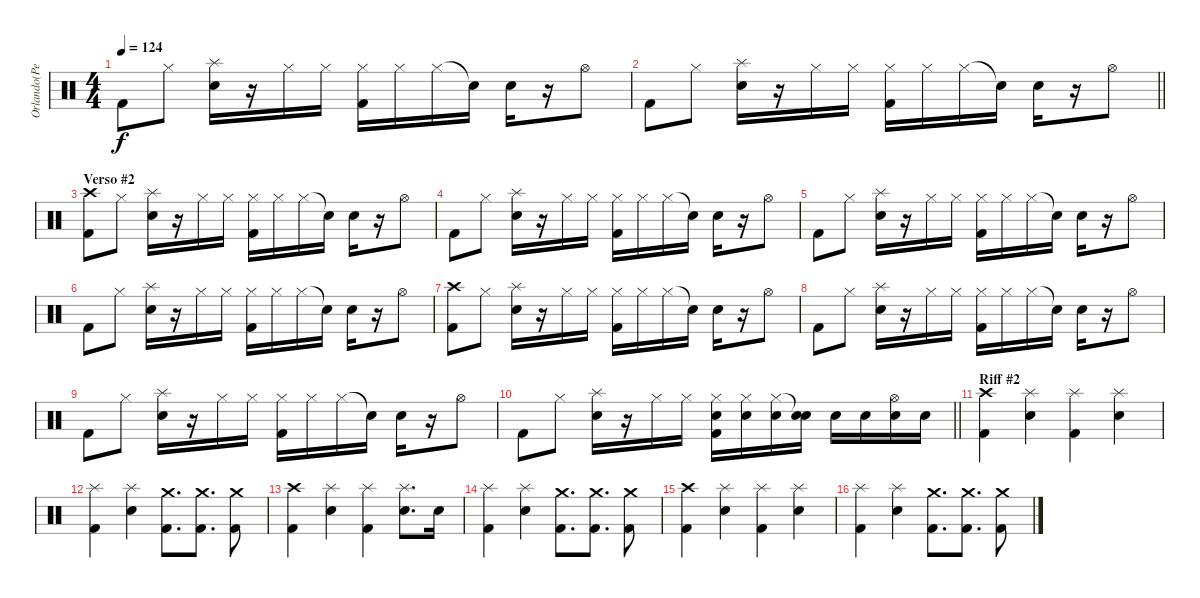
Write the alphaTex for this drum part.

\track ("Orlando(Percusión)" "Orlando(Pe") {instrument percussion}
\staff {score}
\articulation defaults
\ts (4 4)
\tempo 124
\clef neutral
\ks c "Kick (hit) 2".8{dy f} "Hi-Hat (closed)".8
("Splash (hit)" "Electric Snare (hit)").16 r.16 "Hi-Hat (closed)".16 "Hi-Hat (closed)".16 ("Hi-Hat (closed)" "Kick (hit) 2").16 "Hi-Hat (closed)".16 "Hi-Hat (closed)".16 "Snare (hit)"{t}.16 "Electric Snare (hit)".16 r.16 "Hi-Hat (open)".8 |
\barLineRight lightlight "Kick (hit) 2".8 "Hi-Hat (closed)".8
("Splash (hit)" "Electric Snare (hit)").16 r.16 "Hi-Hat (closed)".16 "Hi-Hat (closed)".16 ("Hi-Hat (closed)" "Kick (hit) 2").16 "Hi-Hat (closed)".16 "Hi-Hat (closed)".16 "Snare (hit)"{t}.16 "Electric Snare (hit)".16 r.16 "Hi-Hat (open)".8 |
\section ("" "Verso #2")
("Crash high (hit)" "Kick (hit) 2").8 "Hi-Hat (closed)".8 ("Splash (hit)" "Electric Snare (hit)").16 r.16 "Hi-Hat (closed)".16 "Hi-Hat (closed)".16 ("Hi-Hat (closed)" "Kick (hit) 2").16 "Hi-Hat (closed)".16 "Hi-Hat (closed)".16 "Snare (hit)"{t}.16 "Electric Snare (hit)".16 r.16 "Hi-Hat (open)".8 |
"Kick (hit) 2".8 "Hi-Hat (closed)".8 ("Splash (hit)" "Electric Snare (hit)").16 r.16 "Hi-Hat (closed)".16 "Hi-Hat (closed)".16 ("Hi-Hat (closed)" "Kick (hit) 2").16 "Hi-Hat (closed)".16 "Hi-Hat (closed)".16 "Snare (hit)"{t}.16 "Electric Snare (hit)".16 r.16 "Hi-Hat (open)".8 |
"Kick (hit) 2".8 "Hi-Hat (closed)".8 ("Splash (hit)" "Electric Snare (hit)").16 r.16 "Hi-Hat (closed)".16 "Hi-Hat (closed)".16 ("Hi-Hat (closed)" "Kick (hit) 2").16 "Hi-Hat (closed)".16 "Hi-Hat (closed)".16 "Snare (hit)"{t}.16 "Electric Snare (hit)".16 r.16 "Hi-Hat (open)".8 |
"Kick (hit) 2".8 "Hi-Hat (closed)".8 ("Splash (hit)" "Electric Snare (hit)").16 r.16 "Hi-Hat (closed)".16 "Hi-Hat (closed)".16 ("Hi-Hat (closed)" "Kick (hit) 2").16 "Hi-Hat (closed)".16 "Hi-Hat (closed)".16 "Snare (hit)"{t}.16 "Electric Snare (hit)".16 r.16 "Hi-Hat (open)".8 |
("Crash high (hit)" "Kick (hit) 2").8 "Hi-Hat (closed)".8 ("Splash (hit)" "Electric Snare (hit)").16 r.16 "Hi-Hat (closed)".16 "Hi-Hat (closed)".16 ("Hi-Hat (closed)" "Kick (hit) 2").16 "Hi-Hat (closed)".16 "Hi-Hat (closed)".16 "Snare (hit)"{t}.16 "Electric Snare (hit)".16 r.16 "Hi-Hat (open)".8 |
"Kick (hit) 2".8 "Hi-Hat (closed)".8 ("Splash (hit)" "Electric Snare (hit)").16 r.16 "Hi-Hat (closed)".16 "Hi-Hat (closed)".16 ("Hi-Hat (closed)" "Kick (hit) 2").16 "Hi-Hat (closed)".16 "Hi-Hat (closed)".16 "Snare (hit)"{t}.16 "Electric Snare (hit)".16 r.16 "Hi-Hat (open)".8 |
"Kick (hit) 2".8 "Hi-Hat (closed)".8 ("Splash (hit)" "Electric Snare (hit)").16 r.16 "Hi-Hat (closed)".16 "Hi-Hat (closed)".16 ("Hi-Hat (closed)" "Kick (hit) 2").16 "Hi-Hat (closed)".16 "Hi-Hat (closed)".16 "Snare (hit)"{t}.16 "Electric Snare (hit)".16 r.16 "Hi-Hat (open)".8 |
\barLineRight lightlight "Kick (hit) 2".8 "Hi-Hat (closed)".8
("Splash (hit)" "Electric Snare (hit)").16 r.16 "Hi-Hat (closed)".16 "Hi-Hat (closed)".16 ("Hi-Hat (closed)" "Electric Snare (hit)" "Kick (hit) 2").16 ("Hi-Hat (closed)" "Electric Snare (hit)").16 ("Hi-Hat (closed)" "Electric Snare (hit)").16 ("Snare (hit)"{t} "Electric Snare (hit)").16 "Electric Snare (hit)".16 "Electric Snare (hit)".16 ("Hi-Hat (open)" "Electric Snare (hit)").16 "Electric Snare (hit)".16 |
\section ("" "Riff #2")
("Crash high (hit)" "Kick (hit) 2").4 ("Splash (hit)" "Electric Snare (hit)").4 ("Splash (hit)" "Kick (hit) 2").4 ("Splash (hit)" "Electric Snare (hit)").4 |
("Splash (hit)" "Kick (hit) 2").4 ("Splash (hit)" "Electric Snare (hit)").4 ("Crash medium (hit)" "Kick (hit) 2").8{d} ("Crash medium (hit)" "Kick (hit) 2").8{d} ("Crash medium (hit)" "Kick (hit) 2").8 |
("Crash high (hit)" "Kick (hit) 2").4 ("Splash (hit)" "Electric Snare (hit)").4 ("Splash (hit)" "Kick (hit) 2").4 ("Splash (hit)" "Electric Snare (hit)").8{d} "Electric Snare (hit)".16 |
("Splash (hit)" "Kick (hit) 2").4 ("Splash (hit)" "Electric Snare (hit)").4 ("Crash medium (hit)" "Kick (hit) 2").8{d} ("Crash medium (hit)" "Kick (hit) 2").8{d} ("Crash medium (hit)" "Kick (hit) 2").8 |
("Crash high (hit)" "Kick (hit) 2").4 ("Splash (hit)" "Electric Snare (hit)").4 ("Splash (hit)" "Kick (hit) 2").4 ("Splash (hit)" "Electric Snare (hit)").4 |
("Splash (hit)" "Kick (hit) 2").4 ("Splash (hit)" "Electric Snare (hit)").4 ("Crash medium (hit)" "Kick (hit) 2").8{d} ("Crash medium (hit)" "Kick (hit) 2").8{d} ("Crash medium (hit)" "Kick (hit) 2").8
